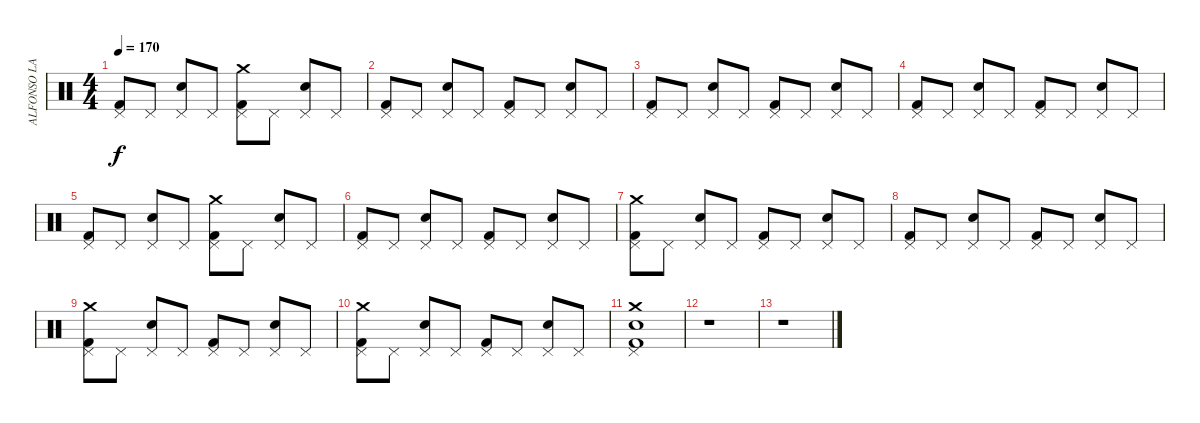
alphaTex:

\track ("ALFONSO LANTERO" "ALFONSO LA") {instrument percussion}
\staff {score}
\articulation defaults
\ts (4 4)
\tempo 170
\clef neutral
\ks c
("Kick (hit) 2" "Pedal Hi-Hat (hit)").8{dy f} "Pedal Hi-Hat (hit)".8 ("Electric Snare (hit)" "Pedal Hi-Hat (hit)").8 "Pedal Hi-Hat (hit)".8 ("Kick (hit) 2" "Pedal Hi-Hat (hit)" "Crash medium (hit)").8 "Pedal Hi-Hat (hit)".8 ("Electric Snare (hit)" "Pedal Hi-Hat (hit)").8 "Pedal Hi-Hat (hit)".8 |
("Kick (hit) 2" "Pedal Hi-Hat (hit)").8 "Pedal Hi-Hat (hit)".8 ("Electric Snare (hit)" "Pedal Hi-Hat (hit)").8 "Pedal Hi-Hat (hit)".8 ("Kick (hit) 2" "Pedal Hi-Hat (hit)").8 "Pedal Hi-Hat (hit)".8 ("Electric Snare (hit)" "Pedal Hi-Hat (hit)").8 "Pedal Hi-Hat (hit)".8 |
("Kick (hit) 2" "Pedal Hi-Hat (hit)").8 "Pedal Hi-Hat (hit)".8 ("Electric Snare (hit)" "Pedal Hi-Hat (hit)").8 "Pedal Hi-Hat (hit)".8 ("Kick (hit) 2" "Pedal Hi-Hat (hit)").8 "Pedal Hi-Hat (hit)".8 ("Electric Snare (hit)" "Pedal Hi-Hat (hit)").8 "Pedal Hi-Hat (hit)".8 |
("Kick (hit) 2" "Pedal Hi-Hat (hit)").8 "Pedal Hi-Hat (hit)".8 ("Electric Snare (hit)" "Pedal Hi-Hat (hit)").8 "Pedal Hi-Hat (hit)".8 ("Kick (hit) 2" "Pedal Hi-Hat (hit)").8 "Pedal Hi-Hat (hit)".8 ("Electric Snare (hit)" "Pedal Hi-Hat (hit)").8 "Pedal Hi-Hat (hit)".8 |
("Kick (hit) 2" "Pedal Hi-Hat (hit)").8 "Pedal Hi-Hat (hit)".8 ("Electric Snare (hit)" "Pedal Hi-Hat (hit)").8 "Pedal Hi-Hat (hit)".8 ("Kick (hit) 2" "Pedal Hi-Hat (hit)" "Crash medium (hit)").8 "Pedal Hi-Hat (hit)".8 ("Electric Snare (hit)" "Pedal Hi-Hat (hit)").8 "Pedal Hi-Hat (hit)".8 |
("Kick (hit) 2" "Pedal Hi-Hat (hit)").8 "Pedal Hi-Hat (hit)".8 ("Electric Snare (hit)" "Pedal Hi-Hat (hit)").8 "Pedal Hi-Hat (hit)".8 ("Kick (hit) 2" "Pedal Hi-Hat (hit)").8 "Pedal Hi-Hat (hit)".8 ("Electric Snare (hit)" "Pedal Hi-Hat (hit)").8 "Pedal Hi-Hat (hit)".8 |
("Kick (hit) 2" "Pedal Hi-Hat (hit)" "Crash medium (hit)").8 "Pedal Hi-Hat (hit)".8 ("Electric Snare (hit)" "Pedal Hi-Hat (hit)").8 "Pedal Hi-Hat (hit)".8 ("Kick (hit) 2" "Pedal Hi-Hat (hit)").8 "Pedal Hi-Hat (hit)".8 ("Electric Snare (hit)" "Pedal Hi-Hat (hit)").8 "Pedal Hi-Hat (hit)".8 |
("Kick (hit) 2" "Pedal Hi-Hat (hit)").8 "Pedal Hi-Hat (hit)".8 ("Electric Snare (hit)" "Pedal Hi-Hat (hit)").8 "Pedal Hi-Hat (hit)".8 ("Kick (hit) 2" "Pedal Hi-Hat (hit)").8 "Pedal Hi-Hat (hit)".8 ("Electric Snare (hit)" "Pedal Hi-Hat (hit)").8 "Pedal Hi-Hat (hit)".8 |
("Kick (hit) 2" "Pedal Hi-Hat (hit)" "Crash medium (hit)").8 "Pedal Hi-Hat (hit)".8 ("Electric Snare (hit)" "Pedal Hi-Hat (hit)").8 "Pedal Hi-Hat (hit)".8 ("Kick (hit) 2" "Pedal Hi-Hat (hit)").8 "Pedal Hi-Hat (hit)".8 ("Electric Snare (hit)" "Pedal Hi-Hat (hit)").8 "Pedal Hi-Hat (hit)".8 |
("Kick (hit) 2" "Pedal Hi-Hat (hit)" "Crash medium (hit)").8 "Pedal Hi-Hat (hit)".8 ("Electric Snare (hit)" "Pedal Hi-Hat (hit)").8 "Pedal Hi-Hat (hit)".8 ("Kick (hit) 2" "Pedal Hi-Hat (hit)").8 "Pedal Hi-Hat (hit)".8 ("Electric Snare (hit)" "Pedal Hi-Hat (hit)").8 "Pedal Hi-Hat (hit)".8 |
("Kick (hit) 2" "Electric Snare (hit)" "Pedal Hi-Hat (hit)" "Crash medium (hit)").1 |
r.1 |
r.1
